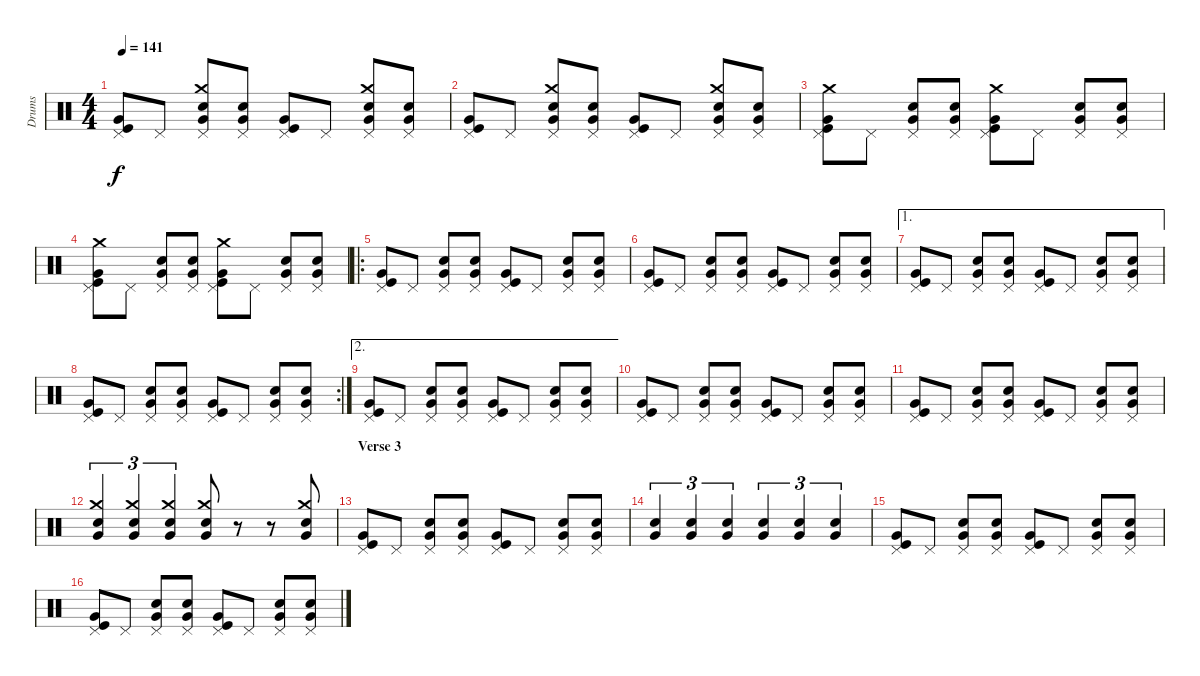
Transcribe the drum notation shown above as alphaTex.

\track ("Drums" "Drums") {instrument percussion}
\staff {score}
\articulation defaults
\ts (4 4)
\tempo 141
\clef neutral
\ks c
("Pedal Hi-Hat (hit)" "Very Low Tom (hit)" "Kick (hit)").8{dy f} "Pedal Hi-Hat (hit)".8 ("Pedal Hi-Hat (hit)" "Crash medium (hit)" "Very Low Tom (hit)" "Snare (hit) 2").8 ("Pedal Hi-Hat (hit)" "Very Low Tom (hit)" "Snare (hit) 2").8 ("Pedal Hi-Hat (hit)" "Very Low Tom (hit)" "Kick (hit)").8 "Pedal Hi-Hat (hit)".8 ("Pedal Hi-Hat (hit)" "Crash medium (hit)" "Very Low Tom (hit)" "Snare (hit) 2").8 ("Pedal Hi-Hat (hit)" "Very Low Tom (hit)" "Snare (hit) 2").8 |
("Pedal Hi-Hat (hit)" "Very Low Tom (hit)" "Kick (hit)").8 "Pedal Hi-Hat (hit)".8 ("Pedal Hi-Hat (hit)" "Crash medium (hit)" "Very Low Tom (hit)" "Snare (hit) 2").8 ("Pedal Hi-Hat (hit)" "Very Low Tom (hit)" "Snare (hit) 2").8 ("Pedal Hi-Hat (hit)" "Very Low Tom (hit)" "Kick (hit)").8 "Pedal Hi-Hat (hit)".8 ("Pedal Hi-Hat (hit)" "Crash medium (hit)" "Very Low Tom (hit)" "Snare (hit) 2").8 ("Pedal Hi-Hat (hit)" "Very Low Tom (hit)" "Snare (hit) 2").8 |
("Pedal Hi-Hat (hit)" "Crash medium (hit)" "Very Low Tom (hit)" "Kick (hit)").8 "Pedal Hi-Hat (hit)".8 ("Pedal Hi-Hat (hit)" "Very Low Tom (hit)" "Snare (hit) 2").8 ("Pedal Hi-Hat (hit)" "Very Low Tom (hit)" "Snare (hit) 2").8 ("Pedal Hi-Hat (hit)" "Crash medium (hit)" "Very Low Tom (hit)" "Kick (hit)").8 "Pedal Hi-Hat (hit)".8 ("Pedal Hi-Hat (hit)" "Very Low Tom (hit)" "Snare (hit) 2").8 ("Pedal Hi-Hat (hit)" "Very Low Tom (hit)" "Snare (hit) 2").8 |
("Pedal Hi-Hat (hit)" "Crash medium (hit)" "Very Low Tom (hit)" "Kick (hit)").8 "Pedal Hi-Hat (hit)".8 ("Pedal Hi-Hat (hit)" "Very Low Tom (hit)" "Snare (hit) 2").8 ("Pedal Hi-Hat (hit)" "Very Low Tom (hit)" "Snare (hit) 2").8 ("Pedal Hi-Hat (hit)" "Crash medium (hit)" "Very Low Tom (hit)" "Kick (hit)").8 "Pedal Hi-Hat (hit)".8 ("Pedal Hi-Hat (hit)" "Very Low Tom (hit)" "Snare (hit) 2").8 ("Pedal Hi-Hat (hit)" "Very Low Tom (hit)" "Snare (hit) 2").8 |
\ro
("Pedal Hi-Hat (hit)" "Very Low Tom (hit)" "Kick (hit)").8 "Pedal Hi-Hat (hit)".8 ("Pedal Hi-Hat (hit)" "Very Low Tom (hit)" "Snare (hit) 2").8 ("Pedal Hi-Hat (hit)" "Very Low Tom (hit)" "Snare (hit) 2").8 ("Pedal Hi-Hat (hit)" "Very Low Tom (hit)" "Kick (hit)").8 "Pedal Hi-Hat (hit)".8 ("Pedal Hi-Hat (hit)" "Very Low Tom (hit)" "Snare (hit) 2").8 ("Pedal Hi-Hat (hit)" "Very Low Tom (hit)" "Snare (hit) 2").8 |
("Pedal Hi-Hat (hit)" "Very Low Tom (hit)" "Kick (hit)").8 "Pedal Hi-Hat (hit)".8 ("Pedal Hi-Hat (hit)" "Very Low Tom (hit)" "Snare (hit) 2").8 ("Pedal Hi-Hat (hit)" "Very Low Tom (hit)" "Snare (hit) 2").8 ("Pedal Hi-Hat (hit)" "Very Low Tom (hit)" "Kick (hit)").8 "Pedal Hi-Hat (hit)".8 ("Pedal Hi-Hat (hit)" "Very Low Tom (hit)" "Snare (hit) 2").8 ("Pedal Hi-Hat (hit)" "Very Low Tom (hit)" "Snare (hit) 2").8 |
\ae 1
("Pedal Hi-Hat (hit)" "Very Low Tom (hit)" "Kick (hit)").8 "Pedal Hi-Hat (hit)".8 ("Pedal Hi-Hat (hit)" "Very Low Tom (hit)" "Snare (hit) 2").8 ("Pedal Hi-Hat (hit)" "Very Low Tom (hit)" "Snare (hit) 2").8 ("Pedal Hi-Hat (hit)" "Very Low Tom (hit)" "Kick (hit)").8 "Pedal Hi-Hat (hit)".8 ("Pedal Hi-Hat (hit)" "Very Low Tom (hit)" "Snare (hit) 2").8 ("Pedal Hi-Hat (hit)" "Very Low Tom (hit)" "Snare (hit) 2").8 |
\rc 2
("Pedal Hi-Hat (hit)" "Very Low Tom (hit)" "Kick (hit)").8 "Pedal Hi-Hat (hit)".8 ("Pedal Hi-Hat (hit)" "Very Low Tom (hit)" "Snare (hit) 2").8 ("Pedal Hi-Hat (hit)" "Very Low Tom (hit)" "Snare (hit) 2").8 ("Pedal Hi-Hat (hit)" "Very Low Tom (hit)" "Kick (hit)").8 "Pedal Hi-Hat (hit)".8 ("Pedal Hi-Hat (hit)" "Very Low Tom (hit)" "Snare (hit) 2").8 ("Pedal Hi-Hat (hit)" "Very Low Tom (hit)" "Snare (hit) 2").8 |
\ae 2
("Pedal Hi-Hat (hit)" "Very Low Tom (hit)" "Kick (hit)").8 "Pedal Hi-Hat (hit)".8 ("Pedal Hi-Hat (hit)" "Very Low Tom (hit)" "Snare (hit) 2").8 ("Pedal Hi-Hat (hit)" "Very Low Tom (hit)" "Snare (hit) 2").8 ("Pedal Hi-Hat (hit)" "Very Low Tom (hit)" "Kick (hit)").8 "Pedal Hi-Hat (hit)".8 ("Pedal Hi-Hat (hit)" "Very Low Tom (hit)" "Snare (hit) 2").8 ("Pedal Hi-Hat (hit)" "Very Low Tom (hit)" "Snare (hit) 2").8 |
("Pedal Hi-Hat (hit)" "Very Low Tom (hit)" "Kick (hit)").8 "Pedal Hi-Hat (hit)".8 ("Pedal Hi-Hat (hit)" "Very Low Tom (hit)" "Snare (hit) 2").8 ("Pedal Hi-Hat (hit)" "Very Low Tom (hit)" "Snare (hit) 2").8 ("Pedal Hi-Hat (hit)" "Very Low Tom (hit)" "Kick (hit)").8 "Pedal Hi-Hat (hit)".8 ("Pedal Hi-Hat (hit)" "Very Low Tom (hit)" "Snare (hit) 2").8 ("Pedal Hi-Hat (hit)" "Very Low Tom (hit)" "Snare (hit) 2").8 |
("Pedal Hi-Hat (hit)" "Very Low Tom (hit)" "Kick (hit)").8 "Pedal Hi-Hat (hit)".8 ("Pedal Hi-Hat (hit)" "Very Low Tom (hit)" "Snare (hit) 2").8 ("Pedal Hi-Hat (hit)" "Very Low Tom (hit)" "Snare (hit) 2").8 ("Pedal Hi-Hat (hit)" "Very Low Tom (hit)" "Kick (hit)").8 "Pedal Hi-Hat (hit)".8 ("Pedal Hi-Hat (hit)" "Very Low Tom (hit)" "Snare (hit) 2").8 ("Pedal Hi-Hat (hit)" "Very Low Tom (hit)" "Snare (hit) 2").8 |
("Crash medium (hit)" "Snare (hit) 2" "Very Low Tom (hit)").4{tu (3 2)} ("Crash medium (hit)" "Snare (hit) 2" "Very Low Tom (hit)").4{tu (3 2)} ("Crash medium (hit)" "Snare (hit) 2" "Very Low Tom (hit)").4{tu (3 2)} ("Crash medium (hit)" "Snare (hit) 2" "Very Low Tom (hit)").8 r.8 r.8 ("Crash medium (hit)" "Snare (hit) 2" "Very Low Tom (hit)").8 |
\section ("" "Verse 3")
("Pedal Hi-Hat (hit)" "Very Low Tom (hit)" "Kick (hit)").8 "Pedal Hi-Hat (hit)".8 ("Pedal Hi-Hat (hit)" "Very Low Tom (hit)" "Snare (hit) 2").8 ("Pedal Hi-Hat (hit)" "Very Low Tom (hit)" "Snare (hit) 2").8 ("Pedal Hi-Hat (hit)" "Very Low Tom (hit)" "Kick (hit)").8 "Pedal Hi-Hat (hit)".8 ("Pedal Hi-Hat (hit)" "Very Low Tom (hit)" "Snare (hit) 2").8 ("Pedal Hi-Hat (hit)" "Very Low Tom (hit)" "Snare (hit) 2").8 |
("Very Low Tom (hit)" "Snare (hit) 2").4{tu (3 2)} ("Very Low Tom (hit)" "Snare (hit) 2").4{tu (3 2)} ("Very Low Tom (hit)" "Snare (hit) 2").4{tu (3 2)} ("Very Low Tom (hit)" "Snare (hit) 2").4{tu (3 2)} ("Very Low Tom (hit)" "Snare (hit) 2").4{tu (3 2)} ("Very Low Tom (hit)" "Snare (hit) 2").4{tu (3 2)} |
("Pedal Hi-Hat (hit)" "Very Low Tom (hit)" "Kick (hit)").8 "Pedal Hi-Hat (hit)".8 ("Pedal Hi-Hat (hit)" "Very Low Tom (hit)" "Snare (hit) 2").8 ("Pedal Hi-Hat (hit)" "Very Low Tom (hit)" "Snare (hit) 2").8 ("Pedal Hi-Hat (hit)" "Very Low Tom (hit)" "Kick (hit)").8 "Pedal Hi-Hat (hit)".8 ("Pedal Hi-Hat (hit)" "Very Low Tom (hit)" "Snare (hit) 2").8 ("Pedal Hi-Hat (hit)" "Very Low Tom (hit)" "Snare (hit) 2").8 |
("Pedal Hi-Hat (hit)" "Very Low Tom (hit)" "Kick (hit)").8 "Pedal Hi-Hat (hit)".8 ("Pedal Hi-Hat (hit)" "Very Low Tom (hit)" "Snare (hit) 2").8 ("Pedal Hi-Hat (hit)" "Very Low Tom (hit)" "Snare (hit) 2").8 ("Pedal Hi-Hat (hit)" "Very Low Tom (hit)" "Kick (hit)").8 "Pedal Hi-Hat (hit)".8 ("Pedal Hi-Hat (hit)" "Very Low Tom (hit)" "Snare (hit) 2").8 ("Pedal Hi-Hat (hit)" "Very Low Tom (hit)" "Snare (hit) 2").8
